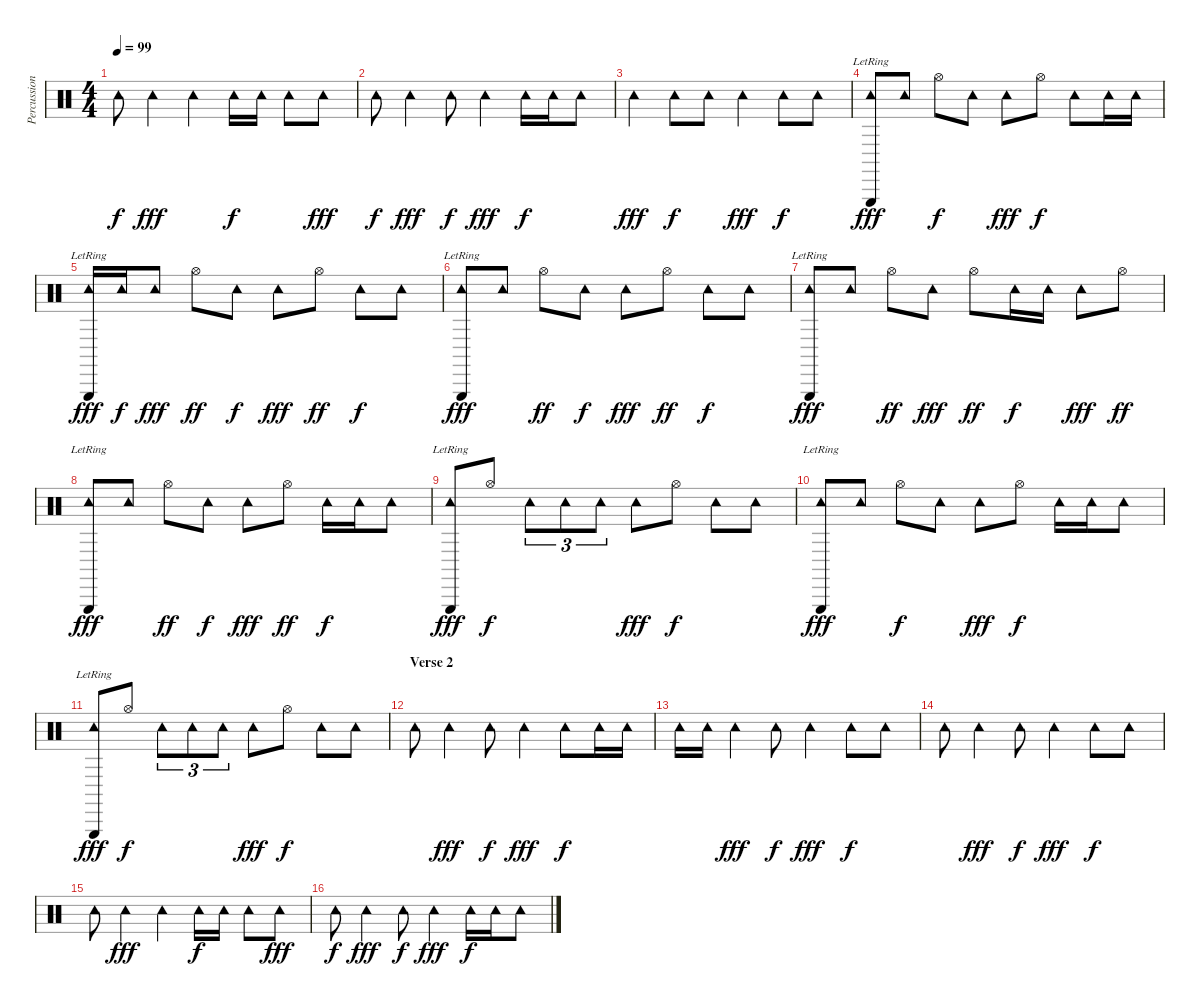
\track ("Percussion" "Percussion") {instrument percussion}
\staff {score}
\articulation defaults
\ts (4 4)
\tempo 99
\clef neutral
\ks c "Tambourine (hit)".8{dy f} "Tambourine (hit)".4{dy fff} "Tambourine (hit)".4 "Tambourine (hit)".16{dy f} "Tambourine (hit)".16 "Tambourine (hit)".8 "Tambourine (hit)".8{dy fff}
|
"Tambourine (hit)".8{dy f} "Tambourine (hit)".4{dy fff} "Tambourine (hit)".8{dy f} "Tambourine (hit)".4{dy fff} "Tambourine (hit)".16{dy f} "Tambourine (hit)".16 "Tambourine (hit)".8 |
"Tambourine (hit)".4{dy fff} "Tambourine (hit)".8{dy f} "Tambourine (hit)".8 "Tambourine (hit)".4{dy fff} "Tambourine (hit)".8{dy f} "Tambourine (hit)".8 |
("Tambourine (hit)" "Triangle (hit)"{lr}).8{dy fff} "Tambourine (hit)".8 "Hi-Hat (open)".8{dy f} "Tambourine (hit)".8 "Tambourine (hit)".8{dy fff} "Hi-Hat (open)".8{dy f} "Tambourine (hit)".8 "Tambourine (hit)".16 "Tambourine (hit)".16 |
("Tambourine (hit)" "Triangle (hit)"{lr}).16{dy fff} "Tambourine (hit)".16{dy f} "Tambourine (hit)".8{dy fff} "Hi-Hat (open)".8{dy ff} "Tambourine (hit)".8{dy f} "Tambourine (hit)".8{dy fff} "Hi-Hat (open)".8{dy ff} "Tambourine (hit)".8{dy f} "Tambourine (hit)".8 |
("Tambourine (hit)" "Triangle (hit)"{lr}).8{dy fff} "Tambourine (hit)".8 "Hi-Hat (open)".8{dy ff} "Tambourine (hit)".8{dy f} "Tambourine (hit)".8{dy fff} "Hi-Hat (open)".8{dy ff} "Tambourine (hit)".8{dy f} "Tambourine (hit)".8 |
("Tambourine (hit)" "Triangle (hit)"{lr}).8{dy fff} "Tambourine (hit)".8 "Hi-Hat (open)".8{dy ff} "Tambourine (hit)".8{dy fff} "Hi-Hat (open)".8{dy ff} "Tambourine (hit)".16{dy f} "Tambourine (hit)".16 "Tambourine (hit)".8{dy fff} "Hi-Hat (open)".8{dy ff} |
("Tambourine (hit)" "Triangle (hit)"{lr}).8{dy fff} "Tambourine (hit)".8 "Hi-Hat (open)".8{dy ff} "Tambourine (hit)".8{dy f} "Tambourine (hit)".8{dy fff} "Hi-Hat (open)".8{dy ff} "Tambourine (hit)".16{dy f} "Tambourine (hit)".16 "Tambourine (hit)".8 |
("Tambourine (hit)" "Triangle (hit)"{lr}).8{dy fff} "Hi-Hat (open)".8{dy f} "Tambourine (hit)".8{tu (3 2)} "Tambourine (hit)".8{tu (3 2)} "Tambourine (hit)".8{tu (3 2)} "Tambourine (hit)".8{dy fff} "Hi-Hat (open)".8{dy f} "Tambourine (hit)".8 "Tambourine (hit)".8 |
("Tambourine (hit)" "Triangle (hit)"{lr}).8{dy fff} "Tambourine (hit)".8 "Hi-Hat (open)".8{dy f} "Tambourine (hit)".8 "Tambourine (hit)".8{dy fff} "Hi-Hat (open)".8{dy f} "Tambourine (hit)".16 "Tambourine (hit)".16 "Tambourine (hit)".8 |
("Tambourine (hit)" "Triangle (hit)"{lr}).8{dy fff} "Hi-Hat (open)".8{dy f} "Tambourine (hit)".8{tu (3 2)} "Tambourine (hit)".8{tu (3 2)} "Tambourine (hit)".8{tu (3 2)} "Tambourine (hit)".8{dy fff} "Hi-Hat (open)".8{dy f} "Tambourine (hit)".8 "Tambourine (hit)".8 |
\section ("" "Verse 2")
"Tambourine (hit)".8 "Tambourine (hit)".4{dy fff} "Tambourine (hit)".8{dy f} "Tambourine (hit)".4{dy fff} "Tambourine (hit)".8{dy f} "Tambourine (hit)".16 "Tambourine (hit)".16 |
"Tambourine (hit)".16 "Tambourine (hit)".16 "Tambourine (hit)".4{dy fff} "Tambourine (hit)".8{dy f} "Tambourine (hit)".4{dy fff} "Tambourine (hit)".8{dy f} "Tambourine (hit)".8 |
"Tambourine (hit)".8 "Tambourine (hit)".4{dy fff} "Tambourine (hit)".8{dy f} "Tambourine (hit)".4{dy fff} "Tambourine (hit)".8{dy f} "Tambourine (hit)".8 |
"Tambourine (hit)".8 "Tambourine (hit)".4{dy fff} "Tambourine (hit)".4 "Tambourine (hit)".16{dy f} "Tambourine (hit)".16 "Tambourine (hit)".8 "Tambourine (hit)".8{dy fff} |
"Tambourine (hit)".8{dy f} "Tambourine (hit)".4{dy fff} "Tambourine (hit)".8{dy f} "Tambourine (hit)".4{dy fff} "Tambourine (hit)".16{dy f} "Tambourine (hit)".16 "Tambourine (hit)".8
